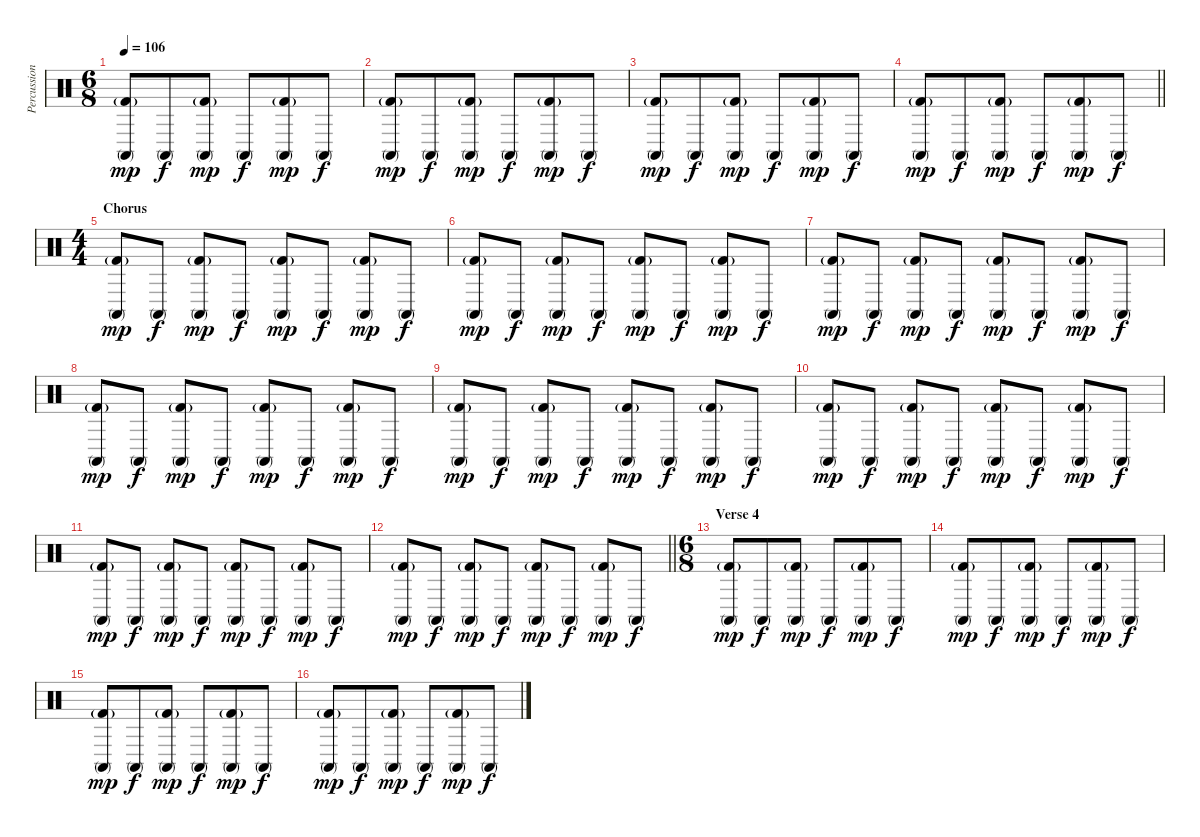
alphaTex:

\track ("Percussion" "Percussion") {instrument percussion}
\staff {score}
\articulation defaults
\ts (6 8)
\tempo 106
\clef neutral
\ks c
("Conga high (mute)" "Kick (hit) 2"{g}).8{dy mp} "Conga high (mute)".8{dy f} ("Conga high (mute)" "Kick (hit) 2"{g}).8{dy mp} "Conga high (mute)".8{dy f} ("Conga high (mute)" "Kick (hit) 2"{g}).8{dy mp} "Conga high (mute)".8{dy f} |
("Conga high (mute)" "Kick (hit) 2"{g}).8{dy mp} "Conga high (mute)".8{dy f} ("Conga high (mute)" "Kick (hit) 2"{g}).8{dy mp} "Conga high (mute)".8{dy f} ("Conga high (mute)" "Kick (hit) 2"{g}).8{dy mp} "Conga high (mute)".8{dy f} |
("Conga high (mute)" "Kick (hit) 2"{g}).8{dy mp} "Conga high (mute)".8{dy f} ("Conga high (mute)" "Kick (hit) 2"{g}).8{dy mp} "Conga high (mute)".8{dy f} ("Conga high (mute)" "Kick (hit) 2"{g}).8{dy mp} "Conga high (mute)".8{dy f} |
\barLineRight lightlight
("Conga high (mute)" "Kick (hit) 2"{g}).8{dy mp} "Conga high (mute)".8{dy f} ("Conga high (mute)" "Kick (hit) 2"{g}).8{dy mp} "Conga high (mute)".8{dy f} ("Conga high (mute)" "Kick (hit) 2"{g}).8{dy mp} "Conga high (mute)".8{dy f} |
\ts (4 4)
\section ("" "Chorus")
("Conga high (mute)" "Kick (hit) 2"{g}).8{dy mp} "Conga high (mute)".8{dy f} ("Conga high (mute)" "Kick (hit) 2"{g}).8{dy mp} "Conga high (mute)".8{dy f} ("Conga high (mute)" "Kick (hit) 2"{g}).8{dy mp} "Conga high (mute)".8{dy f} ("Conga high (mute)" "Kick (hit) 2"{g}).8{dy mp} "Conga high (mute)".8{dy f} |
("Conga high (mute)" "Kick (hit) 2"{g}).8{dy mp} "Conga high (mute)".8{dy f} ("Conga high (mute)" "Kick (hit) 2"{g}).8{dy mp} "Conga high (mute)".8{dy f} ("Conga high (mute)" "Kick (hit) 2"{g}).8{dy mp} "Conga high (mute)".8{dy f} ("Conga high (mute)" "Kick (hit) 2"{g}).8{dy mp} "Conga high (mute)".8{dy f} |
("Conga high (mute)" "Kick (hit) 2"{g}).8{dy mp} "Conga high (mute)".8{dy f} ("Conga high (mute)" "Kick (hit) 2"{g}).8{dy mp} "Conga high (mute)".8{dy f} ("Conga high (mute)" "Kick (hit) 2"{g}).8{dy mp} "Conga high (mute)".8{dy f} ("Conga high (mute)" "Kick (hit) 2"{g}).8{dy mp} "Conga high (mute)".8{dy f} |
("Conga high (mute)" "Kick (hit) 2"{g}).8{dy mp} "Conga high (mute)".8{dy f} ("Conga high (mute)" "Kick (hit) 2"{g}).8{dy mp} "Conga high (mute)".8{dy f} ("Conga high (mute)" "Kick (hit) 2"{g}).8{dy mp} "Conga high (mute)".8{dy f} ("Conga high (mute)" "Kick (hit) 2"{g}).8{dy mp} "Conga high (mute)".8{dy f} |
("Conga high (mute)" "Kick (hit) 2"{g}).8{dy mp} "Conga high (mute)".8{dy f} ("Conga high (mute)" "Kick (hit) 2"{g}).8{dy mp} "Conga high (mute)".8{dy f} ("Conga high (mute)" "Kick (hit) 2"{g}).8{dy mp} "Conga high (mute)".8{dy f} ("Conga high (mute)" "Kick (hit) 2"{g}).8{dy mp} "Conga high (mute)".8{dy f} |
("Conga high (mute)" "Kick (hit) 2"{g}).8{dy mp} "Conga high (mute)".8{dy f} ("Conga high (mute)" "Kick (hit) 2"{g}).8{dy mp} "Conga high (mute)".8{dy f} ("Conga high (mute)" "Kick (hit) 2"{g}).8{dy mp} "Conga high (mute)".8{dy f} ("Conga high (mute)" "Kick (hit) 2"{g}).8{dy mp} "Conga high (mute)".8{dy f} |
("Conga high (mute)" "Kick (hit) 2"{g}).8{dy mp} "Conga high (mute)".8{dy f} ("Conga high (mute)" "Kick (hit) 2"{g}).8{dy mp} "Conga high (mute)".8{dy f} ("Conga high (mute)" "Kick (hit) 2"{g}).8{dy mp} "Conga high (mute)".8{dy f} ("Conga high (mute)" "Kick (hit) 2"{g}).8{dy mp} "Conga high (mute)".8{dy f} |
\barLineRight lightlight
("Conga high (mute)" "Kick (hit) 2"{g}).8{dy mp} "Conga high (mute)".8{dy f} ("Conga high (mute)" "Kick (hit) 2"{g}).8{dy mp} "Conga high (mute)".8{dy f} ("Conga high (mute)" "Kick (hit) 2"{g}).8{dy mp} "Conga high (mute)".8{dy f} ("Conga high (mute)" "Kick (hit) 2"{g}).8{dy mp} "Conga high (mute)".8{dy f} |
\ts (6 8)
\section ("" "Verse 4")
("Conga high (mute)" "Kick (hit) 2"{g}).8{dy mp} "Conga high (mute)".8{dy f} ("Conga high (mute)" "Kick (hit) 2"{g}).8{dy mp} "Conga high (mute)".8{dy f} ("Conga high (mute)" "Kick (hit) 2"{g}).8{dy mp} "Conga high (mute)".8{dy f} |
("Conga high (mute)" "Kick (hit) 2"{g}).8{dy mp} "Conga high (mute)".8{dy f} ("Conga high (mute)" "Kick (hit) 2"{g}).8{dy mp} "Conga high (mute)".8{dy f} ("Conga high (mute)" "Kick (hit) 2"{g}).8{dy mp} "Conga high (mute)".8{dy f} |
("Conga high (mute)" "Kick (hit) 2"{g}).8{dy mp} "Conga high (mute)".8{dy f} ("Conga high (mute)" "Kick (hit) 2"{g}).8{dy mp} "Conga high (mute)".8{dy f} ("Conga high (mute)" "Kick (hit) 2"{g}).8{dy mp} "Conga high (mute)".8{dy f} |
("Conga high (mute)" "Kick (hit) 2"{g}).8{dy mp} "Conga high (mute)".8{dy f} ("Conga high (mute)" "Kick (hit) 2"{g}).8{dy mp} "Conga high (mute)".8{dy f} ("Conga high (mute)" "Kick (hit) 2"{g}).8{dy mp} "Conga high (mute)".8{dy f}
